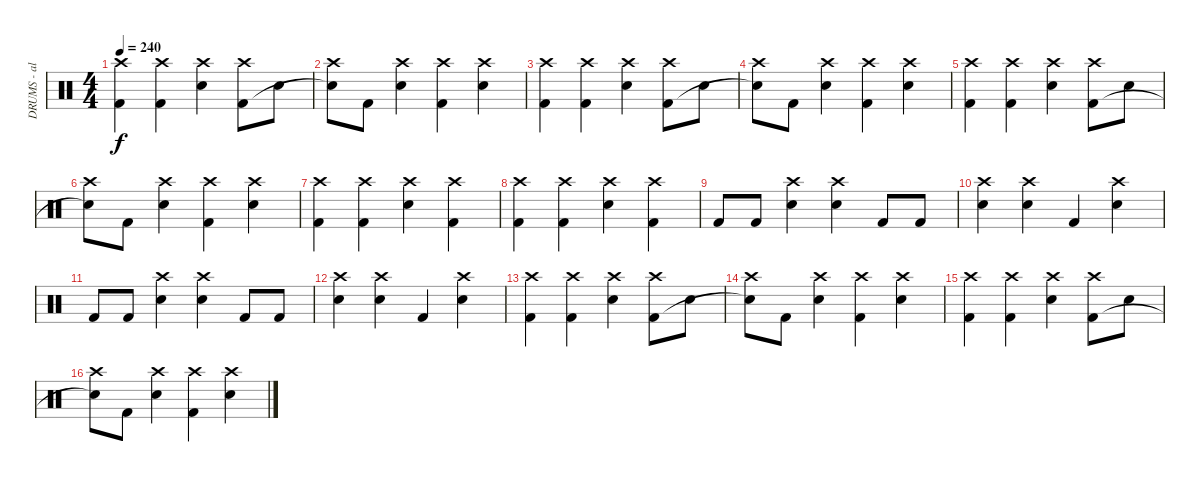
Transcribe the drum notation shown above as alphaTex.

\track ("DRUMS - alastor" "DRUMS - al") {instrument percussion}
\staff {score}
\articulation defaults
\ts (4 4)
\tempo 240
\clef neutral
\ks c
("Crash high (hit)" "Kick (hit) 2").4{dy f} ("Crash high (hit)" "Kick (hit) 2").4 ("Crash high (hit)" "Snare (hit) 2").4 ("Crash high (hit)" "Kick (hit) 2").8 "Snare (hit) 2".8 |
("Crash high (hit)" "Snare (hit) 2"{t}).8 "Kick (hit) 2".8 ("Crash high (hit)" "Snare (hit) 2").4 ("Crash high (hit)" "Kick (hit) 2").4 ("Crash high (hit)" "Snare (hit) 2").4 |
("Crash high (hit)" "Kick (hit) 2").4 ("Crash high (hit)" "Kick (hit) 2").4 ("Crash high (hit)" "Snare (hit) 2").4 ("Crash high (hit)" "Kick (hit) 2").8 "Snare (hit) 2".8 |
("Crash high (hit)" "Snare (hit) 2"{t}).8 "Kick (hit) 2".8 ("Crash high (hit)" "Snare (hit) 2").4 ("Crash high (hit)" "Kick (hit) 2").4 ("Crash high (hit)" "Snare (hit) 2").4 |
("Crash high (hit)" "Kick (hit) 2").4 ("Crash high (hit)" "Kick (hit) 2").4 ("Crash high (hit)" "Snare (hit) 2").4 ("Crash high (hit)" "Kick (hit) 2").8 "Snare (hit) 2".8 |
("Crash high (hit)" "Snare (hit) 2"{t}).8 "Kick (hit) 2".8 ("Crash high (hit)" "Snare (hit) 2").4 ("Crash high (hit)" "Kick (hit) 2").4 ("Crash high (hit)" "Snare (hit) 2").4 |
("Crash high (hit)" "Kick (hit) 2").4 ("Crash high (hit)" "Kick (hit) 2").4 ("Crash high (hit)" "Snare (hit) 2").4 ("Crash high (hit)" "Kick (hit) 2").4 |
("Crash high (hit)" "Kick (hit) 2").4 ("Crash high (hit)" "Kick (hit) 2").4 ("Crash high (hit)" "Snare (hit) 2").4 ("Crash high (hit)" "Kick (hit) 2").4 |
"Kick (hit) 2".8 "Kick (hit) 2".8 ("Crash high (hit)" "Snare (hit) 2").4 ("Crash high (hit)" "Snare (hit) 2").4 "Kick (hit) 2".8 "Kick (hit) 2".8 |
("Crash high (hit)" "Snare (hit) 2").4 ("Crash high (hit)" "Snare (hit) 2").4 "Kick (hit) 2".4 ("Crash high (hit)" "Snare (hit) 2").4 |
"Kick (hit) 2".8 "Kick (hit) 2".8 ("Crash high (hit)" "Snare (hit) 2").4 ("Crash high (hit)" "Snare (hit) 2").4 "Kick (hit) 2".8 "Kick (hit) 2".8 |
("Crash high (hit)" "Snare (hit) 2").4 ("Crash high (hit)" "Snare (hit) 2").4 "Kick (hit) 2".4 ("Crash high (hit)" "Snare (hit) 2").4 |
("Crash high (hit)" "Kick (hit) 2").4 ("Crash high (hit)" "Kick (hit) 2").4 ("Crash high (hit)" "Snare (hit) 2").4 ("Crash high (hit)" "Kick (hit) 2").8 "Snare (hit) 2".8 |
("Crash high (hit)" "Snare (hit) 2"{t}).8 "Kick (hit) 2".8 ("Crash high (hit)" "Snare (hit) 2").4 ("Crash high (hit)" "Kick (hit) 2").4 ("Crash high (hit)" "Snare (hit) 2").4 |
("Crash high (hit)" "Kick (hit) 2").4 ("Crash high (hit)" "Kick (hit) 2").4 ("Crash high (hit)" "Snare (hit) 2").4 ("Crash high (hit)" "Kick (hit) 2").8 "Snare (hit) 2".8 |
("Crash high (hit)" "Snare (hit) 2"{t}).8 "Kick (hit) 2".8 ("Crash high (hit)" "Snare (hit) 2").4 ("Crash high (hit)" "Kick (hit) 2").4 ("Crash high (hit)" "Snare (hit) 2").4
